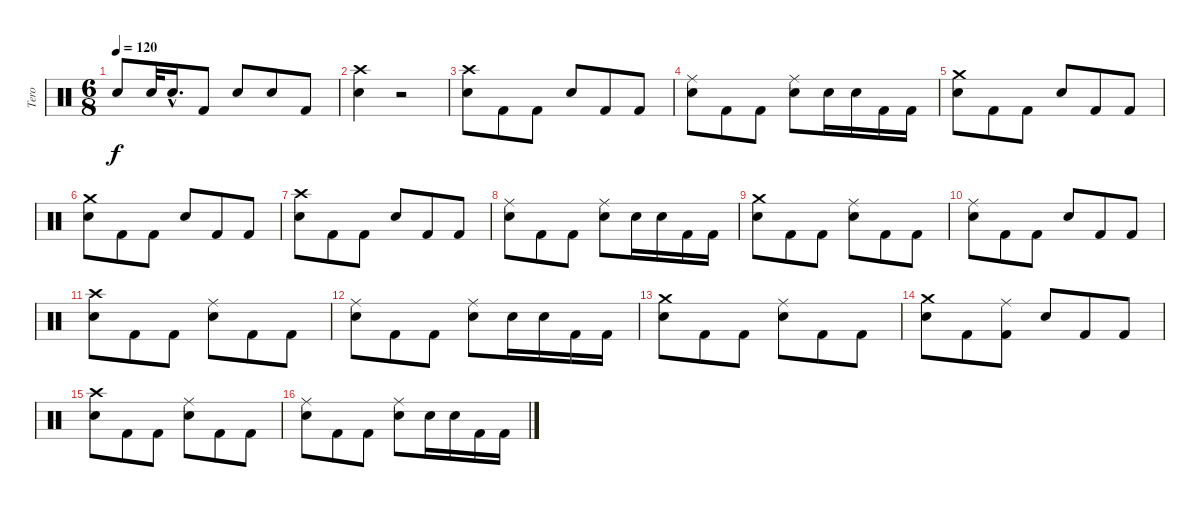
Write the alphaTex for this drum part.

\track ("Tero" "Tero") {instrument percussion}
\staff {score}
\articulation defaults
\ts (6 8)
\tempo 120
\clef neutral
\ks c "Electric Snare (hit)".8{dy f} "Snare (hit) 2".32 "Snare (hit) 2"{hac}.16{d} "Kick (hit) 2".8 "Electric Snare (hit)".8 "Snare (hit) 2".8 "Kick (hit) 2".8
|
("Crash high (hit)" "Electric Snare (hit)").4 r.2 |
("Crash high (hit)" "Snare (hit) 2").8 "Kick (hit) 2".8 "Kick (hit) 2".8 "Snare (hit) 2".8 "Kick (hit) 2".8 "Kick (hit) 2".8 |
("Ride (middle)" "Snare (hit) 2").8 "Kick (hit) 2".8 "Kick (hit) 2".8 ("Ride (middle)" "Snare (hit) 2").8 "Snare (hit) 2".16 "Snare (hit) 2".16 "Kick (hit) 2".16 "Kick (hit) 2".16 |
("Crash medium (hit)" "Snare (hit) 2").8 "Kick (hit) 2".8 "Kick (hit) 2".8 "Snare (hit) 2".8 "Kick (hit) 2".8 "Kick (hit) 2".8 |
("Crash medium (hit)" "Snare (hit) 2").8 "Kick (hit) 2".8 "Kick (hit) 2".8 "Snare (hit) 2".8 "Kick (hit) 2".8 "Kick (hit) 2".8 |
("Crash high (hit)" "Snare (hit) 2").8 "Kick (hit) 2".8 "Kick (hit) 2".8 "Snare (hit) 2".8 "Kick (hit) 2".8 "Kick (hit) 2".8 |
("Snare (hit) 2" "Ride (middle)").8 "Kick (hit) 2".8 "Kick (hit) 2".8 ("Snare (hit) 2" "Ride (middle)").8 "Snare (hit) 2".16 "Snare (hit) 2".16 "Kick (hit) 2".16 "Kick (hit) 2".16 |
("Crash medium (hit)" "Snare (hit) 2").8 "Kick (hit) 2".8 "Kick (hit) 2".8 ("Ride (middle)" "Snare (hit) 2").8 "Kick (hit) 2".8 "Kick (hit) 2".8 |
("Ride (middle)" "Snare (hit) 2").8 "Kick (hit) 2".8 "Kick (hit) 2".8 "Snare (hit) 2".8 "Kick (hit) 2".8 "Kick (hit) 2".8 |
("Crash high (hit)" "Snare (hit) 2").8 "Kick (hit) 2".8 "Kick (hit) 2".8 ("Ride (middle)" "Snare (hit) 2").8 "Kick (hit) 2".8 "Kick (hit) 2".8 |
("Ride (middle)" "Snare (hit) 2").8 "Kick (hit) 2".8 "Kick (hit) 2".8 ("Ride (middle)" "Snare (hit) 2").8 "Snare (hit) 2".16 "Snare (hit) 2".16 "Kick (hit) 2".16 "Kick (hit) 2".16 |
("Crash medium (hit)" "Snare (hit) 2").8 "Kick (hit) 2".8 "Kick (hit) 2".8 ("Ride (middle)" "Snare (hit) 2").8 "Kick (hit) 2".8 "Kick (hit) 2".8 |
("Crash medium (hit)" "Snare (hit) 2").8 "Kick (hit) 2".8 ("Ride (middle)" "Kick (hit) 2").8 "Snare (hit) 2".8 "Kick (hit) 2".8 "Kick (hit) 2".8 |
("Crash high (hit)" "Snare (hit) 2").8 "Kick (hit) 2".8 "Kick (hit) 2".8 ("Ride (middle)" "Snare (hit) 2").8 "Kick (hit) 2".8 "Kick (hit) 2".8 |
("Ride (middle)" "Snare (hit) 2").8 "Kick (hit) 2".8 "Kick (hit) 2".8 ("Ride (middle)" "Snare (hit) 2").8 "Snare (hit) 2".16 "Snare (hit) 2".16 "Kick (hit) 2".16 "Kick (hit) 2".16
